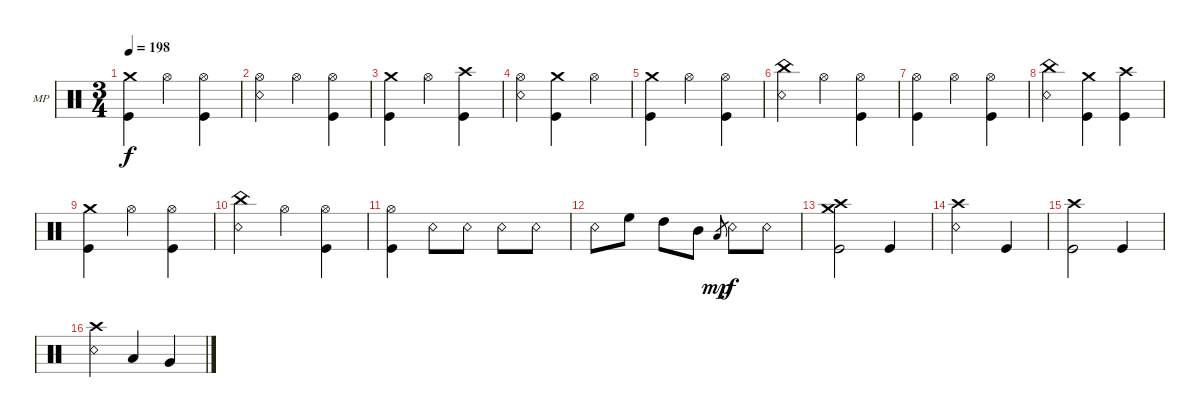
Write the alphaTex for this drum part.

\defaultSystemsLayout 4
\bracketExtendMode groupsimilarinstruments
\firstSystemTrackNameOrientation horizontal
\otherSystemsTrackNameOrientation horizontal
\track ("Mike Portnoy" "MP") {instrument percussion}
\staff {score}
\articulation defaults
\ts (3 4)
\tempo 198
\clef neutral
\ks c
("Crash medium (hit)" "Kick (hit)").4{dy f} "Hi-Hat (open)".4 ("Hi-Hat (open)" "Kick (hit)").4 |
("Hi-Hat (open)" "Snare (rim shot)").4 "Hi-Hat (open)".4 ("Hi-Hat (open)" "Kick (hit)").4 |
("Crash medium (hit)" "Kick (hit)").4 "Hi-Hat (open)".4 ("Crash high (hit)" "Kick (hit)").4 |
("Hi-Hat (open)" "Snare (rim shot)").4 ("Crash medium (hit)" "Kick (hit)").4 "Hi-Hat (open)".4 |
("Crash medium (hit)" "Kick (hit)").4 "Hi-Hat (open)".4 ("Hi-Hat (open)" "Kick (hit)").4 |
("China (hit)" "Snare (rim shot)").4 "Hi-Hat (open)".4 ("Hi-Hat (open)" "Kick (hit)").4 |
("Hi-Hat (open)" "Kick (hit)").4 "Hi-Hat (open)".4 ("Hi-Hat (open)" "Kick (hit)").4 |
("China (hit)" "Snare (rim shot)").4 ("Crash medium (hit)" "Kick (hit)").4 ("Crash high (hit)" "Kick (hit)").4 |
("Crash medium (hit)" "Kick (hit)").4 "Hi-Hat (open)".4 ("Hi-Hat (open)" "Kick (hit)").4 |
("China (hit)" "Snare (rim shot)").4 "Hi-Hat (open)".4 ("Hi-Hat (open)" "Kick (hit)").4 |
("Hi-Hat (open)" "Kick (hit)").4 "Snare (rim shot)".8 "Snare (rim shot)".8 "Snare (rim shot)".8 "Snare (rim shot)".8 |
"Snare (rim shot)".8 "High Floor Tom (hit)".8 "High Tom (hit)".8 "Mid Tom (hit)".8 "Low Tom (hit)".8{gr dy mp} "Snare (rim shot)".8{dy f} "Snare (rim shot)".8 |
("Crash medium (hit)" "Crash high (hit)" "Kick (hit)").2 "Kick (hit)".4 |
("Crash high (hit)" "Snare (rim shot)").2 "Kick (hit)".4 |
("Crash high (hit)" "Kick (hit)").2 "Kick (hit)".4 |
("Crash high (hit)" "Snare (rim shot)").4 "Low Tom (hit)".4 "Very Low Tom (hit)".4
